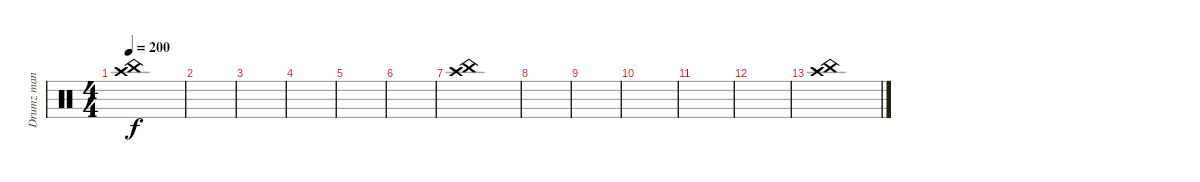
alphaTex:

\track ("Drumz man" "Drumz man") {instrument percussion}
\staff {score}
\articulation defaults
\ts (4 4)
\tempo 200
\clef neutral
\ks c
("Crash high (hit)" "China (hit)").1{dy f} |
|
|
|
|
|
("Crash high (hit)" "China (hit)").1 |
|
|
|
|
|
("Crash high (hit)" "China (hit)").1
